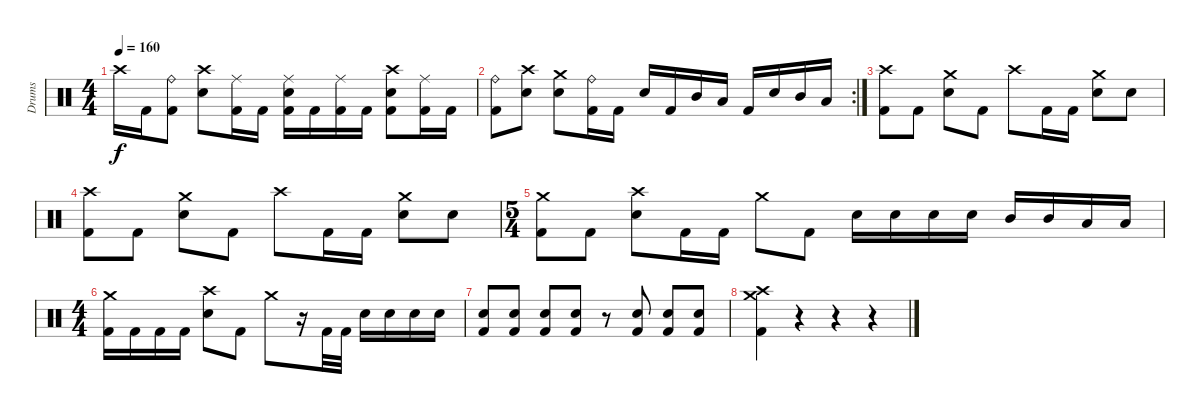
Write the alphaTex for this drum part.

\track ("Drums" "Drums") {instrument percussion}
\staff {score}
\articulation defaults
\ts (4 4)
\tempo 160
\clef neutral
\ks c "Crash high (hit)".16{dy f} "Kick (hit) 2".16
("Ride (bell)" "Kick (hit) 2").8 ("Crash high (hit)" "Electric Snare (hit)").8 ("Ride (middle)" "Kick (hit) 2").16 "Kick (hit) 2".16 ("Ride (middle)" "Electric Snare (hit)" "Kick (hit) 2").16 "Kick (hit) 2".16 ("Ride (middle)" "Kick (hit) 2").16 "Kick (hit) 2".16 ("Crash high (hit)" "Electric Snare (hit)" "Kick (hit) 2").8 ("Ride (middle)" "Kick (hit) 2").16 "Kick (hit) 2".16 |
\rc 2
("Ride (bell)" "Kick (hit) 2").8 ("Crash high (hit)" "Electric Snare (hit)").8 ("Crash medium (hit)" "Electric Snare (hit)").8 ("Ride (bell)" "Kick (hit) 2").16 "Kick (hit) 2".16 "Electric Snare (hit)".16 "Kick (hit) 2".16 "Mid Tom (hit)".16 "Low Tom (hit)".16 "Kick (hit) 2".16 "Electric Snare (hit)".16 "Mid Tom (hit)".16 "Low Tom (hit)".16 |
("Crash high (hit)" "Kick (hit) 2").8 "Kick (hit) 2".8 ("Crash medium (hit)" "Electric Snare (hit)").8 "Kick (hit) 2".8 "Crash high (hit)".8 "Kick (hit) 2".16 "Kick (hit) 2".16 ("Crash medium (hit)" "Electric Snare (hit)").8 "Electric Snare (hit)".8 |
("Crash high (hit)" "Kick (hit) 2").8 "Kick (hit) 2".8 ("Crash medium (hit)" "Electric Snare (hit)").8 "Kick (hit) 2".8 "Crash high (hit)".8 "Kick (hit) 2".16 "Kick (hit) 2".16 ("Crash medium (hit)" "Electric Snare (hit)").8 "Electric Snare (hit)".8 |
\ts (5 4)
("Crash medium (hit)" "Kick (hit) 2").8 "Kick (hit) 2".8 ("Crash high (hit)" "Electric Snare (hit)").8 "Kick (hit) 2".16 "Kick (hit) 2".16 "Crash medium (hit)".8 "Kick (hit) 2".8 "Electric Snare (hit)".16 "Electric Snare (hit)".16 "Electric Snare (hit)".16 "Electric Snare (hit)".16 "Mid Tom (hit)".16 "Mid Tom (hit)".16 "Low Tom (hit)".16 "Low Tom (hit)".16 |
\ts (4 4)
("Crash medium (hit)" "Kick (hit) 2").16 "Kick (hit) 2".16 "Kick (hit) 2".16 "Kick (hit) 2".16 ("Crash high (hit)" "Electric Snare (hit)").8 "Kick (hit) 2".8 "Crash medium (hit)".8 r.16 "Kick (hit) 2".32 "Kick (hit) 2".32 "Electric Snare (hit)".16 "Electric Snare (hit)".16 "Electric Snare (hit)".16 "Electric Snare (hit)".16 |
("Electric Snare (hit)" "Kick (hit) 2").8 ("Electric Snare (hit)" "Kick (hit) 2").8 ("Electric Snare (hit)" "Kick (hit) 2").8 ("Electric Snare (hit)" "Kick (hit) 2").8 r.8 ("Electric Snare (hit)" "Kick (hit) 2").8 ("Electric Snare (hit)" "Kick (hit) 2").8 ("Electric Snare (hit)" "Kick (hit) 2").8 |
("Crash medium (hit)" "Crash high (hit)" "Kick (hit) 2").4 r.4 r.4 r.4
